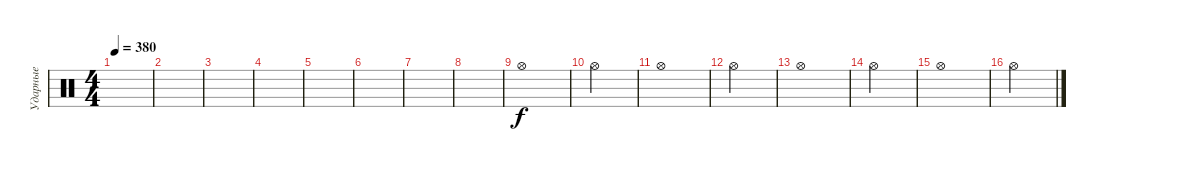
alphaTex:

\track ("Ударные" "Ударные") {instrument percussion}
\staff {score}
\articulation defaults
\ts (4 4)
\tempo 380
\clef neutral
\ks c
|
|
|
|
|
|
|
|
"Hi-Hat (open)".1 |
"Hi-Hat (open)".2 |
"Hi-Hat (open)".1 |
"Hi-Hat (open)".2 |
"Hi-Hat (open)".1 |
"Hi-Hat (open)".2 |
"Hi-Hat (open)".1 |
"Hi-Hat (open)".2
